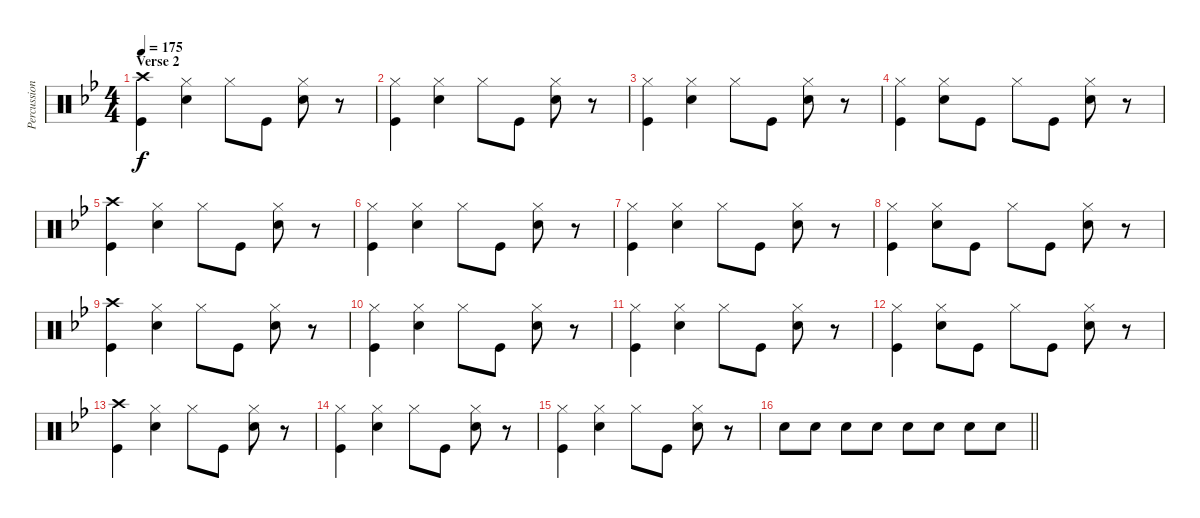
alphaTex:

\track ("Percussion" "Percussion") {instrument percussion}
\staff {score}
\articulation defaults
\ts (4 4)
\section ("" "Verse 2")
\tempo 175
\clef neutral
\ks bb
("Kick (hit)" "Crash high (hit)").4{dy f} ("Snare (hit) 2" "Hi-Hat (closed)").4 "Hi-Hat (closed)".8 "Kick (hit)".8 ("Snare (hit) 2" "Hi-Hat (closed)").8 r.8 |
("Kick (hit)" "Hi-Hat (closed)").4 ("Snare (hit) 2" "Hi-Hat (closed)").4 "Hi-Hat (closed)".8 "Kick (hit)".8 ("Snare (hit) 2" "Hi-Hat (closed)").8 r.8 |
("Kick (hit)" "Hi-Hat (closed)").4 ("Snare (hit) 2" "Hi-Hat (closed)").4 "Hi-Hat (closed)".8 "Kick (hit)".8 ("Snare (hit) 2" "Hi-Hat (closed)").8 r.8 |
("Kick (hit)" "Hi-Hat (closed)").4 ("Snare (hit) 2" "Hi-Hat (closed)").8 "Kick (hit)".8 "Hi-Hat (closed)".8 "Kick (hit)".8 ("Snare (hit) 2" "Hi-Hat (closed)").8 r.8 |
("Kick (hit)" "Crash high (hit)").4 ("Snare (hit) 2" "Hi-Hat (closed)").4 "Hi-Hat (closed)".8 "Kick (hit)".8 ("Snare (hit) 2" "Hi-Hat (closed)").8 r.8 |
("Kick (hit)" "Hi-Hat (closed)").4 ("Snare (hit) 2" "Hi-Hat (closed)").4 "Hi-Hat (closed)".8 "Kick (hit)".8 ("Snare (hit) 2" "Hi-Hat (closed)").8 r.8 |
("Kick (hit)" "Hi-Hat (closed)").4 ("Snare (hit) 2" "Hi-Hat (closed)").4 "Hi-Hat (closed)".8 "Kick (hit)".8 ("Snare (hit) 2" "Hi-Hat (closed)").8 r.8 |
("Kick (hit)" "Hi-Hat (closed)").4 ("Snare (hit) 2" "Hi-Hat (closed)").8 "Kick (hit)".8 "Hi-Hat (closed)".8 "Kick (hit)".8 ("Snare (hit) 2" "Hi-Hat (closed)").8 r.8 |
("Kick (hit)" "Crash high (hit)").4 ("Snare (hit) 2" "Hi-Hat (closed)").4 "Hi-Hat (closed)".8 "Kick (hit)".8 ("Snare (hit) 2" "Hi-Hat (closed)").8 r.8 |
("Kick (hit)" "Hi-Hat (closed)").4 ("Snare (hit) 2" "Hi-Hat (closed)").4 "Hi-Hat (closed)".8 "Kick (hit)".8 ("Snare (hit) 2" "Hi-Hat (closed)").8 r.8 |
("Kick (hit)" "Hi-Hat (closed)").4 ("Snare (hit) 2" "Hi-Hat (closed)").4 "Hi-Hat (closed)".8 "Kick (hit)".8 ("Snare (hit) 2" "Hi-Hat (closed)").8 r.8 |
("Kick (hit)" "Hi-Hat (closed)").4 ("Snare (hit) 2" "Hi-Hat (closed)").8 "Kick (hit)".8 "Hi-Hat (closed)".8 "Kick (hit)".8 ("Snare (hit) 2" "Hi-Hat (closed)").8 r.8 |
("Kick (hit)" "Crash high (hit)").4 ("Snare (hit) 2" "Hi-Hat (closed)").4 "Hi-Hat (closed)".8 "Kick (hit)".8 ("Snare (hit) 2" "Hi-Hat (closed)").8 r.8 |
("Kick (hit)" "Hi-Hat (closed)").4 ("Snare (hit) 2" "Hi-Hat (closed)").4 "Hi-Hat (closed)".8 "Kick (hit)".8 ("Snare (hit) 2" "Hi-Hat (closed)").8 r.8 |
("Kick (hit)" "Hi-Hat (closed)").4 ("Snare (hit) 2" "Hi-Hat (closed)").4 "Hi-Hat (closed)".8 "Kick (hit)".8 ("Snare (hit) 2" "Hi-Hat (closed)").8 r.8 |
\barLineRight lightlight "Snare (hit) 2".8 "Snare (hit) 2".8 "Snare (hit) 2".8 "Snare (hit) 2".8 "Snare (hit) 2".8 "Snare (hit) 2".8 "Snare (hit) 2".8 "Snare (hit) 2".8
